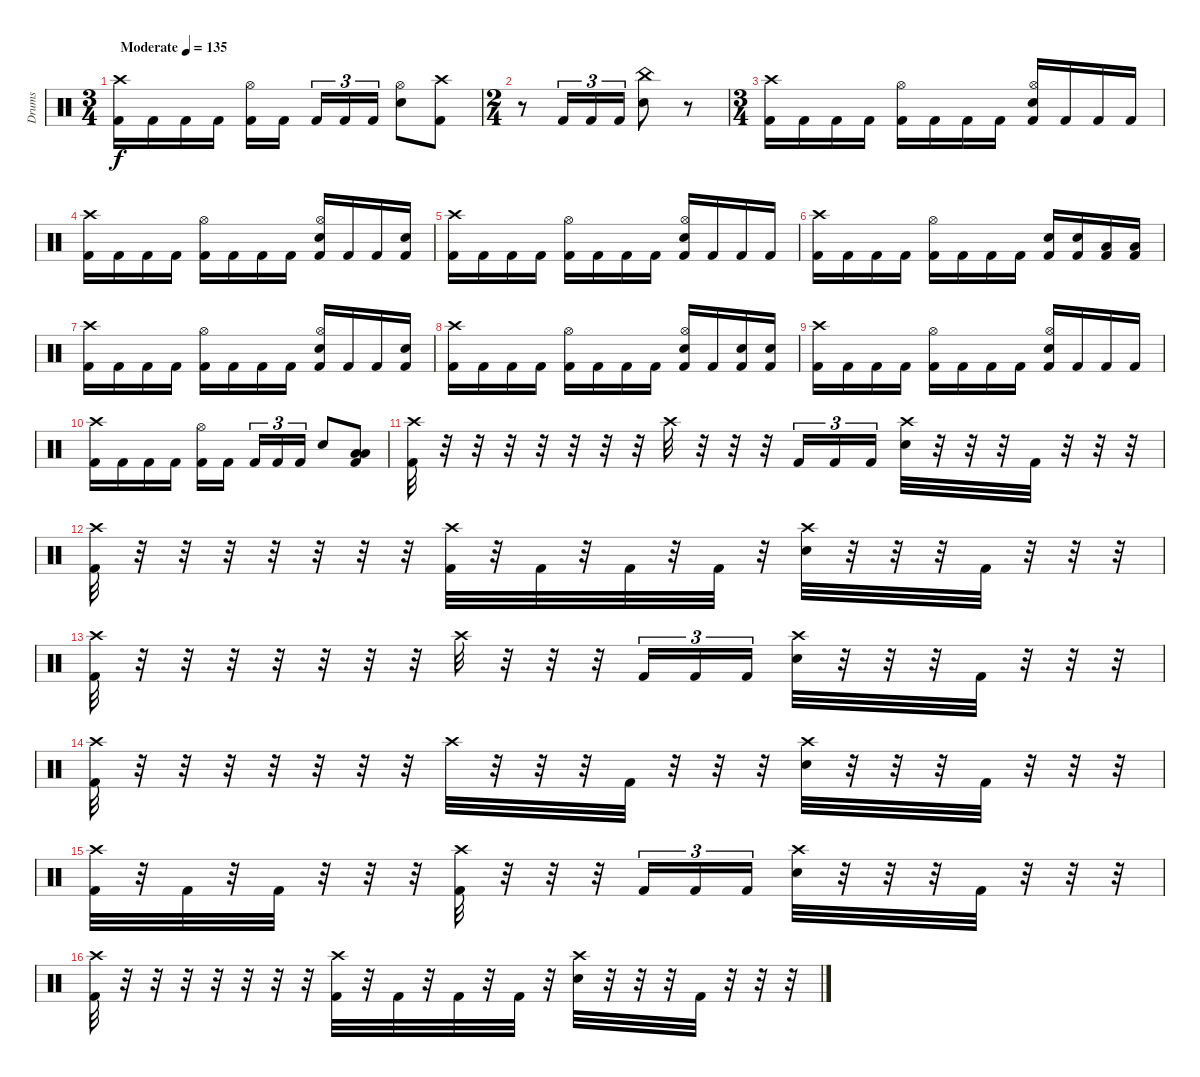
\track ("Drums" "Drums") {instrument percussion}
\staff {score}
\articulation defaults
\ts (3 4)
\tempo (135 "Moderate")
\clef neutral
\ks c
("Crash high (hit)" "Kick (hit) 2").16{dy f} "Kick (hit) 2".16 "Kick (hit) 2".16 "Kick (hit) 2".16 ("Hi-Hat (open)" "Kick (hit) 2").16 "Kick (hit) 2".16{beam splitsecondary} "Kick (hit) 2".16{tu (3 2)} "Kick (hit) 2".16{tu (3 2)} "Kick (hit) 2".16{tu (3 2)} ("Hi-Hat (open)" "Electric Snare (hit)").8 ("Crash high (hit)" "Kick (hit) 2").8 |
\ts (2 4)
r.8 "Kick (hit) 2".16{tu (3 2)} "Kick (hit) 2".16{tu (3 2)} "Kick (hit) 2".16{tu (3 2)} ("China (hit)" "Electric Snare (hit)").8 r.8 |
\ts (3 4)
("Crash high (hit)" "Kick (hit) 2").16 "Kick (hit) 2".16 "Kick (hit) 2".16 "Kick (hit) 2".16 ("Hi-Hat (open)" "Kick (hit) 2").16 "Kick (hit) 2".16 "Kick (hit) 2".16 "Kick (hit) 2".16 ("Hi-Hat (open)" "Electric Snare (hit)" "Kick (hit) 2").16 "Kick (hit) 2".16 "Kick (hit) 2".16 "Kick (hit) 2".16 |
("Crash high (hit)" "Kick (hit) 2").16 "Kick (hit) 2".16 "Kick (hit) 2".16 "Kick (hit) 2".16 ("Hi-Hat (open)" "Kick (hit) 2").16 "Kick (hit) 2".16 "Kick (hit) 2".16 "Kick (hit) 2".16 ("Hi-Hat (open)" "Electric Snare (hit)" "Kick (hit) 2").16 "Kick (hit) 2".16 "Kick (hit) 2".16 ("Electric Snare (hit)" "Kick (hit) 2").16 |
("Crash high (hit)" "Kick (hit) 2").16 "Kick (hit) 2".16 "Kick (hit) 2".16 "Kick (hit) 2".16 ("Hi-Hat (open)" "Kick (hit) 2").16 "Kick (hit) 2".16 "Kick (hit) 2".16 "Kick (hit) 2".16 ("Hi-Hat (open)" "Electric Snare (hit)" "Kick (hit) 2").16 "Kick (hit) 2".16 "Kick (hit) 2".16 "Kick (hit) 2".16 |
("Crash high (hit)" "Kick (hit) 2").16 "Kick (hit) 2".16 "Kick (hit) 2".16 "Kick (hit) 2".16 ("Hi-Hat (open)" "Kick (hit) 2").16 "Kick (hit) 2".16 "Kick (hit) 2".16 "Kick (hit) 2".16 ("Electric Snare (hit)" "Kick (hit) 2").16 ("Electric Snare (hit)" "Kick (hit) 2").16 ("Low Tom (hit)" "Kick (hit) 2").16 ("Low Tom (hit)" "Kick (hit) 2").16 |
("Crash high (hit)" "Kick (hit) 2").16 "Kick (hit) 2".16 "Kick (hit) 2".16 "Kick (hit) 2".16 ("Hi-Hat (open)" "Kick (hit) 2").16 "Kick (hit) 2".16 "Kick (hit) 2".16 "Kick (hit) 2".16 ("Hi-Hat (open)" "Electric Snare (hit)" "Kick (hit) 2").16 "Kick (hit) 2".16 "Kick (hit) 2".16 ("Electric Snare (hit)" "Kick (hit) 2").16 |
("Crash high (hit)" "Kick (hit) 2").16 "Kick (hit) 2".16 "Kick (hit) 2".16 "Kick (hit) 2".16 ("Hi-Hat (open)" "Kick (hit) 2").16 "Kick (hit) 2".16 "Kick (hit) 2".16 "Kick (hit) 2".16 ("Hi-Hat (open)" "Electric Snare (hit)" "Kick (hit) 2").16 "Kick (hit) 2".16 ("Electric Snare (hit)" "Kick (hit) 2").16 ("Electric Snare (hit)" "Kick (hit) 2").16 |
("Crash high (hit)" "Kick (hit) 2").16 "Kick (hit) 2".16 "Kick (hit) 2".16 "Kick (hit) 2".16 ("Hi-Hat (open)" "Kick (hit) 2").16 "Kick (hit) 2".16 "Kick (hit) 2".16 "Kick (hit) 2".16 ("Hi-Hat (open)" "Electric Snare (hit)" "Kick (hit) 2").16 "Kick (hit) 2".16 "Kick (hit) 2".16 "Kick (hit) 2".16 |
("Crash high (hit)" "Kick (hit) 2").16 "Kick (hit) 2".16 "Kick (hit) 2".16 "Kick (hit) 2".16 ("Hi-Hat (open)" "Kick (hit) 2").16 "Kick (hit) 2".16{beam splitsecondary} "Kick (hit) 2".16{tu (3 2)} "Kick (hit) 2".16{tu (3 2)} "Kick (hit) 2".16{tu (3 2)} "Electric Snare (hit)".8 ("Low Tom (hit)" "Low Floor Tom (hit)" "Kick (hit) 2").8 |
("Crash high (hit)" "Kick (hit) 2").32 r.32 r.32 r.32 r.32 r.32 r.32 r.32 "Crash high (hit)".32 r.32 r.32 r.32 "Kick (hit) 2".16{tu (3 2)} "Kick (hit) 2".16{tu (3 2)} "Kick (hit) 2".16{tu (3 2)} ("Crash high (hit)" "Electric Snare (hit)").32 r.32 r.32 r.32 "Kick (hit) 2".32 r.32 r.32 r.32 |
("Crash high (hit)" "Kick (hit) 2").32 r.32 r.32 r.32 r.32 r.32 r.32 r.32 ("Crash high (hit)" "Kick (hit) 2").32 r.32 "Kick (hit) 2".32 r.32 "Kick (hit) 2".32 r.32 "Kick (hit) 2".32 r.32 ("Crash high (hit)" "Electric Snare (hit)").32 r.32 r.32 r.32 "Kick (hit) 2".32 r.32 r.32 r.32 |
("Crash high (hit)" "Kick (hit) 2").32 r.32 r.32 r.32 r.32 r.32 r.32 r.32 "Crash high (hit)".32 r.32 r.32 r.32 "Kick (hit) 2".16{tu (3 2)} "Kick (hit) 2".16{tu (3 2)} "Kick (hit) 2".16{tu (3 2)} ("Crash high (hit)" "Electric Snare (hit)").32 r.32 r.32 r.32 "Kick (hit) 2".32 r.32 r.32 r.32 |
("Crash high (hit)" "Kick (hit) 2").32 r.32 r.32 r.32 r.32 r.32 r.32 r.32 "Crash high (hit)".32 r.32 r.32 r.32 "Kick (hit) 2".32 r.32 r.32 r.32 ("Crash high (hit)" "Electric Snare (hit)").32 r.32 r.32 r.32 "Kick (hit) 2".32 r.32 r.32 r.32 |
("Crash high (hit)" "Kick (hit) 2").32 r.32 "Kick (hit) 2".32 r.32 "Kick (hit) 2".32 r.32 r.32 r.32 ("Crash high (hit)" "Kick (hit) 2").32 r.32 r.32 r.32 "Kick (hit) 2".16{tu (3 2)} "Kick (hit) 2".16{tu (3 2)} "Kick (hit) 2".16{tu (3 2)} ("Crash high (hit)" "Electric Snare (hit)").32 r.32 r.32 r.32 "Kick (hit) 2".32 r.32 r.32 r.32 |
("Crash high (hit)" "Kick (hit) 2").32 r.32 r.32 r.32 r.32 r.32 r.32 r.32 ("Crash high (hit)" "Kick (hit) 2").32 r.32 "Kick (hit) 2".32 r.32 "Kick (hit) 2".32 r.32 "Kick (hit) 2".32 r.32 ("Crash high (hit)" "Electric Snare (hit)").32 r.32 r.32 r.32 "Kick (hit) 2".32 r.32 r.32 r.32
